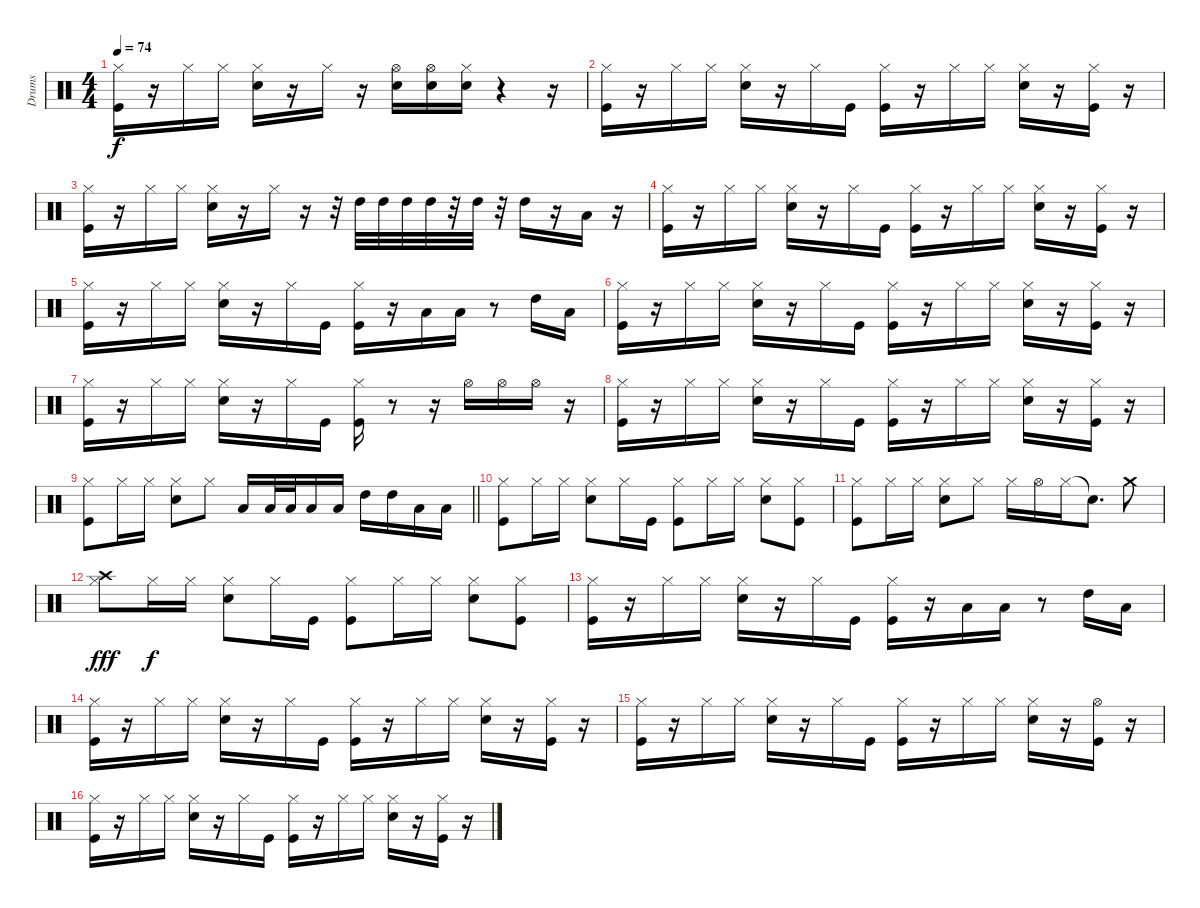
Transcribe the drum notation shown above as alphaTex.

\track ("Drums" "Drums") {instrument percussion}
\staff {score}
\articulation defaults
\ts (4 4)
\section ("" "")
\tempo 74
\clef neutral
\ks c
("Kick (hit)" "Hi-Hat (closed)").16{dy f} r.16 "Hi-Hat (closed)".16 "Hi-Hat (closed)".16 ("Snare (hit) 2" "Hi-Hat (closed)").16 r.16 "Hi-Hat (closed)".16 r.16 ("Hi-Hat (open)" "Snare (hit) 2").16 ("Hi-Hat (open)" "Snare (hit) 2").16 ("Hi-Hat (closed)" "Snare (hit) 2").16 r.4 r.16 |
("Kick (hit)" "Hi-Hat (closed)").16 r.16 "Hi-Hat (closed)".16 "Hi-Hat (closed)".16 ("Snare (hit) 2" "Hi-Hat (closed)").16 r.16 "Hi-Hat (closed)".16 "Kick (hit)".16 ("Kick (hit)" "Hi-Hat (closed)").16 r.16 "Hi-Hat (closed)".16 "Hi-Hat (closed)".16 ("Snare (hit) 2" "Hi-Hat (closed)").16 r.16 ("Kick (hit)" "Hi-Hat (closed)").16 r.16 |
("Kick (hit)" "Hi-Hat (closed)").16 r.16 "Hi-Hat (closed)".16 "Hi-Hat (closed)".16 ("Snare (hit) 2" "Hi-Hat (closed)").16 r.16 "Hi-Hat (closed)".16 r.16 r.32 "High Tom (hit)".32 "High Tom (hit)".32 "High Tom (hit)".32 "High Tom (hit)".32 r.32 "High Tom (hit)".32 r.32 "High Tom (hit)".16 r.16 "Low Floor Tom (hit)".16 r.16 |
("Kick (hit)" "Hi-Hat (closed)").16 r.16 "Hi-Hat (closed)".16 "Hi-Hat (closed)".16 ("Snare (hit) 2" "Hi-Hat (closed)").16 r.16 "Hi-Hat (closed)".16 "Kick (hit)".16 ("Kick (hit)" "Hi-Hat (closed)").16 r.16 "Hi-Hat (closed)".16 "Hi-Hat (closed)".16 ("Snare (hit) 2" "Hi-Hat (closed)").16 r.16 ("Kick (hit)" "Hi-Hat (closed)").16 r.16 |
("Kick (hit)" "Hi-Hat (closed)").16 r.16 "Hi-Hat (closed)".16 "Hi-Hat (closed)".16 ("Snare (hit) 2" "Hi-Hat (closed)").16 r.16 "Hi-Hat (closed)".16 "Kick (hit)".16 ("Kick (hit)" "Hi-Hat (closed)").16 r.16 "Low Floor Tom (hit)".16 "Low Floor Tom (hit)".16 r.8 "High Tom (hit)".16 "Low Floor Tom (hit)".16 |
("Kick (hit)" "Hi-Hat (closed)").16 r.16 "Hi-Hat (closed)".16 "Hi-Hat (closed)".16 ("Snare (hit) 2" "Hi-Hat (closed)").16 r.16 "Hi-Hat (closed)".16 "Kick (hit)".16 ("Kick (hit)" "Hi-Hat (closed)").16 r.16 "Hi-Hat (closed)".16 "Hi-Hat (closed)".16 ("Snare (hit) 2" "Hi-Hat (closed)").16 r.16 ("Kick (hit)" "Hi-Hat (closed)").16 r.16 |
("Kick (hit)" "Hi-Hat (closed)").16 r.16 "Hi-Hat (closed)".16 "Hi-Hat (closed)".16 ("Snare (hit) 2" "Hi-Hat (closed)").16 r.16 "Hi-Hat (closed)".16 "Kick (hit)".16 ("Kick (hit)" "Hi-Hat (closed)").16 r.8 r.16 "Hi-Hat (open)".16 "Hi-Hat (open)".16 "Hi-Hat (open)".16 r.16 |
("Kick (hit)" "Hi-Hat (closed)").16 r.16 "Hi-Hat (closed)".16 "Hi-Hat (closed)".16 ("Snare (hit) 2" "Hi-Hat (closed)").16 r.16 "Hi-Hat (closed)".16 "Kick (hit)".16 ("Kick (hit)" "Hi-Hat (closed)").16 r.16 "Hi-Hat (closed)".16 "Hi-Hat (closed)".16 ("Snare (hit) 2" "Hi-Hat (closed)").16 r.16 ("Kick (hit)" "Hi-Hat (closed)").16 r.16 |
\barLineRight lightlight
("Kick (hit)" "Hi-Hat (closed)").8 "Hi-Hat (closed)".16 "Hi-Hat (closed)".16 ("Snare (hit) 2" "Hi-Hat (closed)").8 "Hi-Hat (closed)".8 "Low Floor Tom (hit)".16 "Low Floor Tom (hit)".32 "Low Floor Tom (hit)".32 "Low Floor Tom (hit)".16 "Low Floor Tom (hit)".16 "High Tom (hit)".16 "High Tom (hit)".16 "Low Floor Tom (hit)".16 "Low Floor Tom (hit)".16 |
\section ("" "")
("Kick (hit)" "Hi-Hat (closed)").8 "Hi-Hat (closed)".16 "Hi-Hat (closed)".16 ("Snare (hit) 2" "Hi-Hat (closed)").8 "Hi-Hat (closed)".16 "Kick (hit)".16 ("Kick (hit)" "Hi-Hat (closed)").8 "Hi-Hat (closed)".16 "Hi-Hat (closed)".16 ("Snare (hit) 2" "Hi-Hat (closed)").8 ("Kick (hit)" "Hi-Hat (closed)").8 |
("Kick (hit)" "Hi-Hat (closed)").8 "Hi-Hat (closed)".16 "Hi-Hat (closed)".16 ("Snare (hit) 2" "Hi-Hat (closed)").8 "Hi-Hat (closed)".8 "Hi-Hat (closed)".16 "Hi-Hat (open)".16 "Hi-Hat (closed)".16 "Snare (hit)"{t}.8{d} "Crash medium (hit)".8 |
("Crash high (hit)" "Hi-Hat (closed)").8{dy fff} "Hi-Hat (closed)".16{dy f} "Hi-Hat (closed)".16 ("Snare (hit) 2" "Hi-Hat (closed)").8 "Hi-Hat (closed)".16 "Kick (hit)".16 ("Kick (hit)" "Hi-Hat (closed)").8 "Hi-Hat (closed)".16 "Hi-Hat (closed)".16 ("Snare (hit) 2" "Hi-Hat (closed)").8 ("Kick (hit)" "Hi-Hat (closed)").8 |
("Kick (hit)" "Hi-Hat (closed)").16 r.16 "Hi-Hat (closed)".16 "Hi-Hat (closed)".16 ("Snare (hit) 2" "Hi-Hat (closed)").16 r.16 "Hi-Hat (closed)".16 "Kick (hit)".16 ("Kick (hit)" "Hi-Hat (closed)").16 r.16 "Low Floor Tom (hit)".16 "Low Floor Tom (hit)".16 r.8 "High Tom (hit)".16 "Low Floor Tom (hit)".16 |
("Kick (hit)" "Hi-Hat (closed)").16 r.16 "Hi-Hat (closed)".16 "Hi-Hat (closed)".16 ("Snare (hit) 2" "Hi-Hat (closed)").16 r.16 "Hi-Hat (closed)".16 "Kick (hit)".16 ("Kick (hit)" "Hi-Hat (closed)").16 r.16 "Hi-Hat (closed)".16 "Hi-Hat (closed)".16 ("Snare (hit) 2" "Hi-Hat (closed)").16 r.16 ("Kick (hit)" "Hi-Hat (closed)").16 r.16 |
("Kick (hit)" "Hi-Hat (closed)").16 r.16 "Hi-Hat (closed)".16 "Hi-Hat (closed)".16 ("Snare (hit) 2" "Hi-Hat (closed)").16 r.16 "Hi-Hat (closed)".16 "Kick (hit)".16 ("Kick (hit)" "Hi-Hat (closed)").16 r.16 "Hi-Hat (closed)".16 "Hi-Hat (closed)".16 ("Snare (hit) 2" "Hi-Hat (closed)").16 r.16 ("Kick (hit)" "Hi-Hat (open)").16 r.16 |
("Kick (hit)" "Hi-Hat (closed)").16 r.16 "Hi-Hat (closed)".16 "Hi-Hat (closed)".16 ("Snare (hit) 2" "Hi-Hat (closed)").16 r.16 "Hi-Hat (closed)".16 "Kick (hit)".16 ("Kick (hit)" "Hi-Hat (closed)").16 r.16 "Hi-Hat (closed)".16 "Hi-Hat (closed)".16 ("Snare (hit) 2" "Hi-Hat (closed)").16 r.16 ("Kick (hit)" "Hi-Hat (closed)").16 r.16
